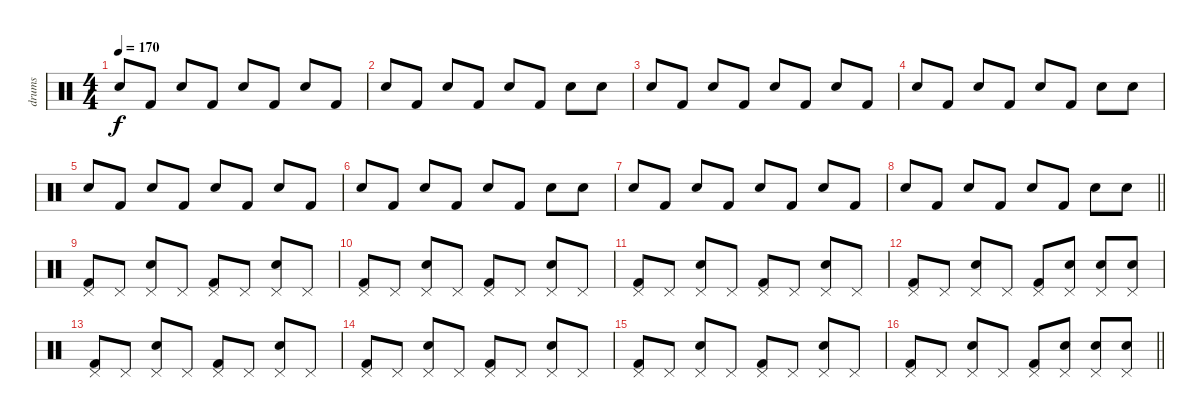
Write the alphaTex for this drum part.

\track ("drums" "drums") {instrument percussion}
\staff {score}
\articulation defaults
\ts (4 4)
\tempo 170
\clef neutral
\ks c "Electric Snare (hit)".8{dy f} "Kick (hit) 2".8 "Electric Snare (hit)".8 "Kick (hit) 2".8 "Electric Snare (hit)".8 "Kick (hit) 2".8 "Electric Snare (hit)".8 "Kick (hit) 2".8
|
"Electric Snare (hit)".8 "Kick (hit) 2".8 "Electric Snare (hit)".8 "Kick (hit) 2".8 "Electric Snare (hit)".8 "Kick (hit) 2".8 "Electric Snare (hit)".8 "Electric Snare (hit)".8 |
"Electric Snare (hit)".8 "Kick (hit) 2".8 "Electric Snare (hit)".8 "Kick (hit) 2".8 "Electric Snare (hit)".8 "Kick (hit) 2".8 "Electric Snare (hit)".8 "Kick (hit) 2".8 |
"Electric Snare (hit)".8 "Kick (hit) 2".8 "Electric Snare (hit)".8 "Kick (hit) 2".8 "Electric Snare (hit)".8 "Kick (hit) 2".8 "Electric Snare (hit)".8 "Electric Snare (hit)".8 |
"Electric Snare (hit)".8 "Kick (hit) 2".8 "Electric Snare (hit)".8 "Kick (hit) 2".8 "Electric Snare (hit)".8 "Kick (hit) 2".8 "Electric Snare (hit)".8 "Kick (hit) 2".8 |
"Electric Snare (hit)".8 "Kick (hit) 2".8 "Electric Snare (hit)".8 "Kick (hit) 2".8 "Electric Snare (hit)".8 "Kick (hit) 2".8 "Electric Snare (hit)".8 "Electric Snare (hit)".8 |
"Electric Snare (hit)".8 "Kick (hit) 2".8 "Electric Snare (hit)".8 "Kick (hit) 2".8 "Electric Snare (hit)".8 "Kick (hit) 2".8 "Electric Snare (hit)".8 "Kick (hit) 2".8 |
\barLineRight lightlight "Electric Snare (hit)".8 "Kick (hit) 2".8 "Electric Snare (hit)".8 "Kick (hit) 2".8 "Electric Snare (hit)".8 "Kick (hit) 2".8 "Electric Snare (hit)".8 "Electric Snare (hit)".8
|
("Kick (hit) 2" "Pedal Hi-Hat (hit)").8 "Pedal Hi-Hat (hit)".8 ("Electric Snare (hit)" "Pedal Hi-Hat (hit)").8 "Pedal Hi-Hat (hit)".8 ("Kick (hit) 2" "Pedal Hi-Hat (hit)").8 "Pedal Hi-Hat (hit)".8 ("Electric Snare (hit)" "Pedal Hi-Hat (hit)").8 "Pedal Hi-Hat (hit)".8 |
("Kick (hit) 2" "Pedal Hi-Hat (hit)").8 "Pedal Hi-Hat (hit)".8 ("Electric Snare (hit)" "Pedal Hi-Hat (hit)").8 "Pedal Hi-Hat (hit)".8 ("Kick (hit) 2" "Pedal Hi-Hat (hit)").8 "Pedal Hi-Hat (hit)".8 ("Electric Snare (hit)" "Pedal Hi-Hat (hit)").8 "Pedal Hi-Hat (hit)".8 |
("Kick (hit) 2" "Pedal Hi-Hat (hit)").8 "Pedal Hi-Hat (hit)".8 ("Electric Snare (hit)" "Pedal Hi-Hat (hit)").8 "Pedal Hi-Hat (hit)".8 ("Kick (hit) 2" "Pedal Hi-Hat (hit)").8 "Pedal Hi-Hat (hit)".8 ("Electric Snare (hit)" "Pedal Hi-Hat (hit)").8 "Pedal Hi-Hat (hit)".8 |
("Kick (hit) 2" "Pedal Hi-Hat (hit)").8 "Pedal Hi-Hat (hit)".8 ("Electric Snare (hit)" "Pedal Hi-Hat (hit)").8 "Pedal Hi-Hat (hit)".8 ("Kick (hit) 2" "Pedal Hi-Hat (hit)").8 ("Electric Snare (hit)" "Pedal Hi-Hat (hit)").8 ("Electric Snare (hit)" "Pedal Hi-Hat (hit)").8 ("Electric Snare (hit)" "Pedal Hi-Hat (hit)").8 |
("Kick (hit) 2" "Pedal Hi-Hat (hit)").8 "Pedal Hi-Hat (hit)".8 ("Electric Snare (hit)" "Pedal Hi-Hat (hit)").8 "Pedal Hi-Hat (hit)".8 ("Kick (hit) 2" "Pedal Hi-Hat (hit)").8 "Pedal Hi-Hat (hit)".8 ("Electric Snare (hit)" "Pedal Hi-Hat (hit)").8 "Pedal Hi-Hat (hit)".8 |
("Kick (hit) 2" "Pedal Hi-Hat (hit)").8 "Pedal Hi-Hat (hit)".8 ("Electric Snare (hit)" "Pedal Hi-Hat (hit)").8 "Pedal Hi-Hat (hit)".8 ("Kick (hit) 2" "Pedal Hi-Hat (hit)").8 "Pedal Hi-Hat (hit)".8 ("Electric Snare (hit)" "Pedal Hi-Hat (hit)").8 "Pedal Hi-Hat (hit)".8 |
("Kick (hit) 2" "Pedal Hi-Hat (hit)").8 "Pedal Hi-Hat (hit)".8 ("Electric Snare (hit)" "Pedal Hi-Hat (hit)").8 "Pedal Hi-Hat (hit)".8 ("Kick (hit) 2" "Pedal Hi-Hat (hit)").8 "Pedal Hi-Hat (hit)".8 ("Electric Snare (hit)" "Pedal Hi-Hat (hit)").8 "Pedal Hi-Hat (hit)".8 |
\barLineRight lightlight
("Kick (hit) 2" "Pedal Hi-Hat (hit)").8 "Pedal Hi-Hat (hit)".8 ("Electric Snare (hit)" "Pedal Hi-Hat (hit)").8 "Pedal Hi-Hat (hit)".8 ("Kick (hit) 2" "Pedal Hi-Hat (hit)").8 ("Electric Snare (hit)" "Pedal Hi-Hat (hit)").8 ("Electric Snare (hit)" "Pedal Hi-Hat (hit)").8 ("Electric Snare (hit)" "Pedal Hi-Hat (hit)").8
